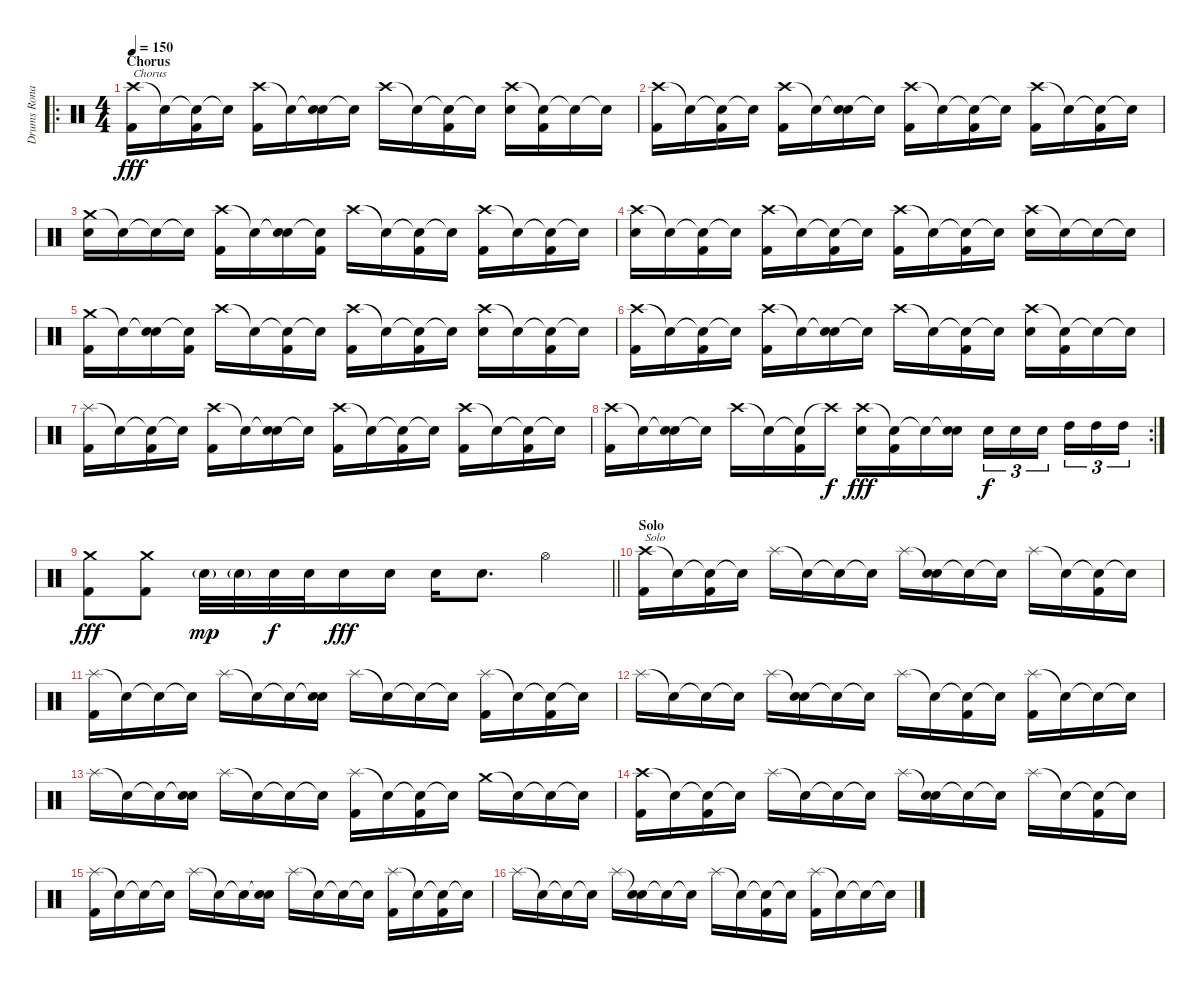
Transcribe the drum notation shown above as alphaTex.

\track ("Drums Ronald Reagen FTW" "Drums Rona") {instrument percussion}
\staff {score}
\articulation defaults
\ro
\ts (4 4)
\section ("" "Chorus")
\tempo 150
\clef neutral
\ks c
("Crash high (hit)" "Kick (hit) 2").16{txt "Chorus" dy fff} "Snare (hit)"{t}.16 ("Snare (hit)"{t} "Kick (hit) 2").16 "Snare (hit)"{t}.16 ("Crash high (hit)" "Kick (hit) 2").16 "Snare (hit)"{t}.16 ("Snare (hit)"{t} "Electric Snare (hit)").16 "Snare (hit)"{t}.16 "Crash high (hit)".16 "Snare (hit)"{t}.16 ("Snare (hit)"{t} "Kick (hit) 2").16 "Snare (hit)"{t}.16 ("Crash high (hit)" "Electric Snare (hit)").16 ("Snare (hit)"{t} "Kick (hit) 2").16 "Snare (hit)"{t}.16 "Snare (hit)"{t}.16 |
("Crash high (hit)" "Kick (hit) 2").16 "Snare (hit)"{t}.16 ("Snare (hit)"{t} "Kick (hit) 2").16 "Snare (hit)"{t}.16 ("Crash high (hit)" "Kick (hit) 2").16 "Snare (hit)"{t}.16 ("Snare (hit)"{t} "Electric Snare (hit)").16 "Snare (hit)"{t}.16 ("Crash high (hit)" "Kick (hit) 2").16 "Snare (hit)"{t}.16 ("Snare (hit)"{t} "Kick (hit) 2").16 "Snare (hit)"{t}.16 ("Crash high (hit)" "Kick (hit) 2").16 "Snare (hit)"{t}.16 ("Snare (hit)"{t} "Kick (hit) 2").16 "Snare (hit)"{t}.16 |
("Crash medium (hit)" "Electric Snare (hit)").16 "Snare (hit)"{t}.16 "Snare (hit)"{t}.16 "Snare (hit)"{t}.16 ("Crash high (hit)" "Kick (hit) 2").16 "Snare (hit)"{t}.16 ("Snare (hit)"{t} "Electric Snare (hit)").16 ("Snare (hit)"{t} "Kick (hit) 2").16 "Crash high (hit)".16 "Snare (hit)"{t}.16 ("Snare (hit)"{t} "Kick (hit) 2").16 "Snare (hit)"{t}.16 ("Crash high (hit)" "Kick (hit) 2").16 "Snare (hit)"{t}.16 ("Snare (hit)"{t} "Kick (hit) 2").16 "Snare (hit)"{t}.16 |
("Crash high (hit)" "Electric Snare (hit)").16 "Snare (hit)"{t}.16 ("Snare (hit)"{t} "Kick (hit) 2").16 "Snare (hit)"{t}.16 ("Crash high (hit)" "Kick (hit) 2").16 "Snare (hit)"{t}.16 ("Snare (hit)"{t} "Kick (hit) 2").16 "Snare (hit)"{t}.16 ("Crash high (hit)" "Kick (hit) 2").16 "Snare (hit)"{t}.16 ("Snare (hit)"{t} "Kick (hit) 2").16 "Snare (hit)"{t}.16 ("Crash high (hit)" "Electric Snare (hit)").16 "Snare (hit)"{t}.16 "Snare (hit)"{t}.16 "Snare (hit)"{t}.16 |
("Crash medium (hit)" "Kick (hit) 2").16 "Snare (hit)"{t}.16 ("Snare (hit)"{t} "Electric Snare (hit)").16 ("Snare (hit)"{t} "Kick (hit) 2").16 "Crash high (hit)".16 "Snare (hit)"{t}.16 ("Snare (hit)"{t} "Kick (hit) 2").16 "Snare (hit)"{t}.16 ("Crash high (hit)" "Kick (hit) 2").16 "Snare (hit)"{t}.16 ("Snare (hit)"{t} "Kick (hit) 2").16 "Snare (hit)"{t}.16 ("Crash high (hit)" "Electric Snare (hit)").16 "Snare (hit)"{t}.16 ("Snare (hit)"{t} "Kick (hit) 2").16 "Snare (hit)"{t}.16 |
("Crash high (hit)" "Kick (hit) 2").16 "Snare (hit)"{t}.16 ("Snare (hit)"{t} "Kick (hit) 2").16 "Snare (hit)"{t}.16 ("Crash high (hit)" "Kick (hit) 2").16 "Snare (hit)"{t}.16 ("Snare (hit)"{t} "Electric Snare (hit)").16 "Snare (hit)"{t}.16 "Crash high (hit)".16 "Snare (hit)"{t}.16 ("Snare (hit)"{t} "Kick (hit) 2").16 "Snare (hit)"{t}.16 ("Crash high (hit)" "Electric Snare (hit)").16 ("Snare (hit)"{t} "Kick (hit) 2").16 "Snare (hit)"{t}.16 "Snare (hit)"{t}.16 |
("Splash (hit)" "Kick (hit) 2").16 "Snare (hit)"{t}.16 ("Snare (hit)"{t} "Kick (hit) 2").16 "Snare (hit)"{t}.16 ("Crash high (hit)" "Kick (hit) 2").16 "Snare (hit)"{t}.16 ("Snare (hit)"{t} "Electric Snare (hit)").16 "Snare (hit)"{t}.16 ("Crash high (hit)" "Kick (hit) 2").16 "Snare (hit)"{t}.16 ("Snare (hit)"{t} "Kick (hit) 2").16 "Snare (hit)"{t}.16 ("Crash high (hit)" "Kick (hit) 2").16 "Snare (hit)"{t}.16 ("Snare (hit)"{t} "Kick (hit) 2").16 "Snare (hit)"{t}.16 |
\rc 2
("Crash high (hit)" "Kick (hit) 2").16 "Snare (hit)"{t}.16 ("Snare (hit)"{t} "Electric Snare (hit)").16 "Snare (hit)"{t}.16 "Crash high (hit)".16 "Snare (hit)"{t}.16 ("Snare (hit)"{t} "Kick (hit) 2").16 "Crash high (hit)"{t}.16{dy f} ("Crash high (hit)" "Electric Snare (hit)").16{dy fff} ("Snare (hit)"{t} "Kick (hit) 2").16 "Snare (hit)"{t}.16 ("Snare (hit)"{t} "Electric Snare (hit)").16 "Electric Snare (hit)".16{tu (3 2) dy f} "Electric Snare (hit)".16{tu (3 2)} "Electric Snare (hit)".16{tu (3 2) beam splitsecondary} "High Tom (hit)".16{tu (3 2)} "High Tom (hit)".16{tu (3 2)} "High Tom (hit)".16{tu (3 2)} |
\barLineRight lightlight
("Crash medium (hit)" "Kick (hit) 2").8{dy fff} ("Crash medium (hit)" "Kick (hit) 2").8 "Electric Snare (hit)"{g}.32{dy mp} "Electric Snare (hit)"{g}.32 "Electric Snare (hit)".32{dy f} "Electric Snare (hit)".32 "Electric Snare (hit)".16{dy fff} "Electric Snare (hit)".16 "Electric Snare (hit)".16 "Electric Snare (hit)".8{d} "Hi-Hat (open)".4 |
\section ("" "Solo")
("Crash high (hit)" "Kick (hit) 2").16{txt "Solo"} "Snare (hit)"{t}.16 ("Snare (hit)"{t} "Kick (hit) 2").16 "Snare (hit)"{t}.16 "Splash (hit)".16 "Snare (hit)"{t}.16 "Snare (hit)"{t}.16 "Snare (hit)"{t}.16 "Splash (hit)".16 ("Snare (hit)"{t} "Electric Snare (hit)").16 "Snare (hit)"{t}.16 "Snare (hit)"{t}.16 "Splash (hit)".16 "Snare (hit)"{t}.16 ("Snare (hit)"{t} "Kick (hit) 2").16 "Snare (hit)"{t}.16 |
("Splash (hit)" "Kick (hit) 2").16 "Snare (hit)"{t}.16 "Snare (hit)"{t}.16 "Snare (hit)"{t}.16 "Splash (hit)".16 "Snare (hit)"{t}.16 "Snare (hit)"{t}.16 ("Snare (hit)"{t} "Electric Snare (hit)").16 "Splash (hit)".16 "Snare (hit)"{t}.16 "Snare (hit)"{t}.16 "Snare (hit)"{t}.16 ("Splash (hit)" "Kick (hit) 2").16 "Snare (hit)"{t}.16 ("Snare (hit)"{t} "Kick (hit) 2").16 "Snare (hit)"{t}.16 |
"Splash (hit)".16 "Snare (hit)"{t}.16 "Snare (hit)"{t}.16 "Snare (hit)"{t}.16 "Splash (hit)".16 ("Snare (hit)"{t} "Electric Snare (hit)").16 "Snare (hit)"{t}.16 "Snare (hit)"{t}.16 "Splash (hit)".16 "Snare (hit)"{t}.16 ("Snare (hit)"{t} "Kick (hit) 2").16 "Snare (hit)"{t}.16 ("Splash (hit)" "Kick (hit) 2").16 "Snare (hit)"{t}.16 "Snare (hit)"{t}.16 "Snare (hit)"{t}.16 |
"Splash (hit)".16 "Snare (hit)"{t}.16 "Snare (hit)"{t}.16 ("Snare (hit)"{t} "Electric Snare (hit)").16 "Splash (hit)".16 "Snare (hit)"{t}.16 "Snare (hit)"{t}.16 "Snare (hit)"{t}.16 ("Splash (hit)" "Kick (hit) 2").16 "Snare (hit)"{t}.16 ("Snare (hit)"{t} "Kick (hit) 2").16 "Snare (hit)"{t}.16 "Crash medium (hit)".16 "Snare (hit)"{t}.16 "Snare (hit)"{t}.16 "Snare (hit)"{t}.16 |
("Crash high (hit)" "Kick (hit) 2").16 "Snare (hit)"{t}.16 ("Snare (hit)"{t} "Kick (hit) 2").16 "Snare (hit)"{t}.16 "Splash (hit)".16 "Snare (hit)"{t}.16 "Snare (hit)"{t}.16 "Snare (hit)"{t}.16 "Splash (hit)".16 ("Snare (hit)"{t} "Electric Snare (hit)").16 "Snare (hit)"{t}.16 "Snare (hit)"{t}.16 "Splash (hit)".16 "Snare (hit)"{t}.16 ("Snare (hit)"{t} "Kick (hit) 2").16 "Snare (hit)"{t}.16 |
("Splash (hit)" "Kick (hit) 2").16 "Snare (hit)"{t}.16 "Snare (hit)"{t}.16 "Snare (hit)"{t}.16 "Splash (hit)".16 "Snare (hit)"{t}.16 "Snare (hit)"{t}.16 ("Snare (hit)"{t} "Electric Snare (hit)").16 "Splash (hit)".16 "Snare (hit)"{t}.16 "Snare (hit)"{t}.16 "Snare (hit)"{t}.16 ("Splash (hit)" "Kick (hit) 2").16 "Snare (hit)"{t}.16 ("Snare (hit)"{t} "Kick (hit) 2").16 "Snare (hit)"{t}.16 |
"Splash (hit)".16 "Snare (hit)"{t}.16 "Snare (hit)"{t}.16 "Snare (hit)"{t}.16 "Splash (hit)".16 ("Snare (hit)"{t} "Electric Snare (hit)").16 "Snare (hit)"{t}.16 "Snare (hit)"{t}.16 "Splash (hit)".16 "Snare (hit)"{t}.16 ("Snare (hit)"{t} "Kick (hit) 2").16 "Snare (hit)"{t}.16 ("Splash (hit)" "Kick (hit) 2").16 "Snare (hit)"{t}.16 "Snare (hit)"{t}.16 "Snare (hit)"{t}.16
